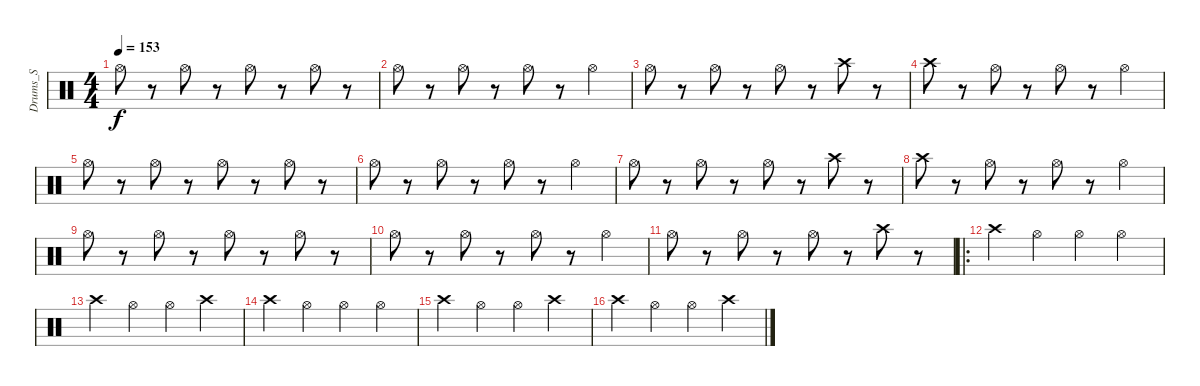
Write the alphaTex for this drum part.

\track ("Drums_S" "Drums_S") {instrument percussion}
\staff {score}
\articulation defaults
\ts (4 4)
\tempo 153
\clef neutral
\ks c "Hi-Hat (open)".8{dy f}
r.8 "Hi-Hat (open)".8 r.8 "Hi-Hat (open)".8 r.8 "Hi-Hat (open)".8 r.8 |
"Hi-Hat (open)".8 r.8 "Hi-Hat (open)".8 r.8 "Hi-Hat (open)".8 r.8 "Hi-Hat (open)".4 |
"Hi-Hat (open)".8 r.8 "Hi-Hat (open)".8 r.8 "Hi-Hat (open)".8 r.8 "Crash high (hit)".8 r.8 |
"Crash high (hit)".8 r.8 "Hi-Hat (open)".8 r.8 "Hi-Hat (open)".8 r.8 "Hi-Hat (open)".4 |
"Hi-Hat (open)".8 r.8 "Hi-Hat (open)".8 r.8 "Hi-Hat (open)".8 r.8 "Hi-Hat (open)".8 r.8 |
"Hi-Hat (open)".8 r.8 "Hi-Hat (open)".8 r.8 "Hi-Hat (open)".8 r.8 "Hi-Hat (open)".4 |
"Hi-Hat (open)".8 r.8 "Hi-Hat (open)".8 r.8 "Hi-Hat (open)".8 r.8 "Crash high (hit)".8 r.8 |
"Crash high (hit)".8 r.8 "Hi-Hat (open)".8 r.8 "Hi-Hat (open)".8 r.8 "Hi-Hat (open)".4 |
"Hi-Hat (open)".8 r.8 "Hi-Hat (open)".8 r.8 "Hi-Hat (open)".8 r.8 "Hi-Hat (open)".8 r.8 |
"Hi-Hat (open)".8 r.8 "Hi-Hat (open)".8 r.8 "Hi-Hat (open)".8 r.8 "Hi-Hat (open)".4 |
"Hi-Hat (open)".8 r.8 "Hi-Hat (open)".8 r.8 "Hi-Hat (open)".8 r.8 "Crash high (hit)".8 r.8 |
\ro "Crash high (hit)".4 "Hi-Hat (open)".4 "Hi-Hat (open)".4 "Hi-Hat (open)".4
|
"Crash high (hit)".4 "Hi-Hat (open)".4 "Hi-Hat (open)".4 "Crash high (hit)".4 |
"Crash high (hit)".4 "Hi-Hat (open)".4 "Hi-Hat (open)".4 "Hi-Hat (open)".4 |
"Crash high (hit)".4 "Hi-Hat (open)".4 "Hi-Hat (open)".4 "Crash high (hit)".4 |
"Crash high (hit)".4 "Hi-Hat (open)".4 "Hi-Hat (open)".4 "Crash high (hit)".4
